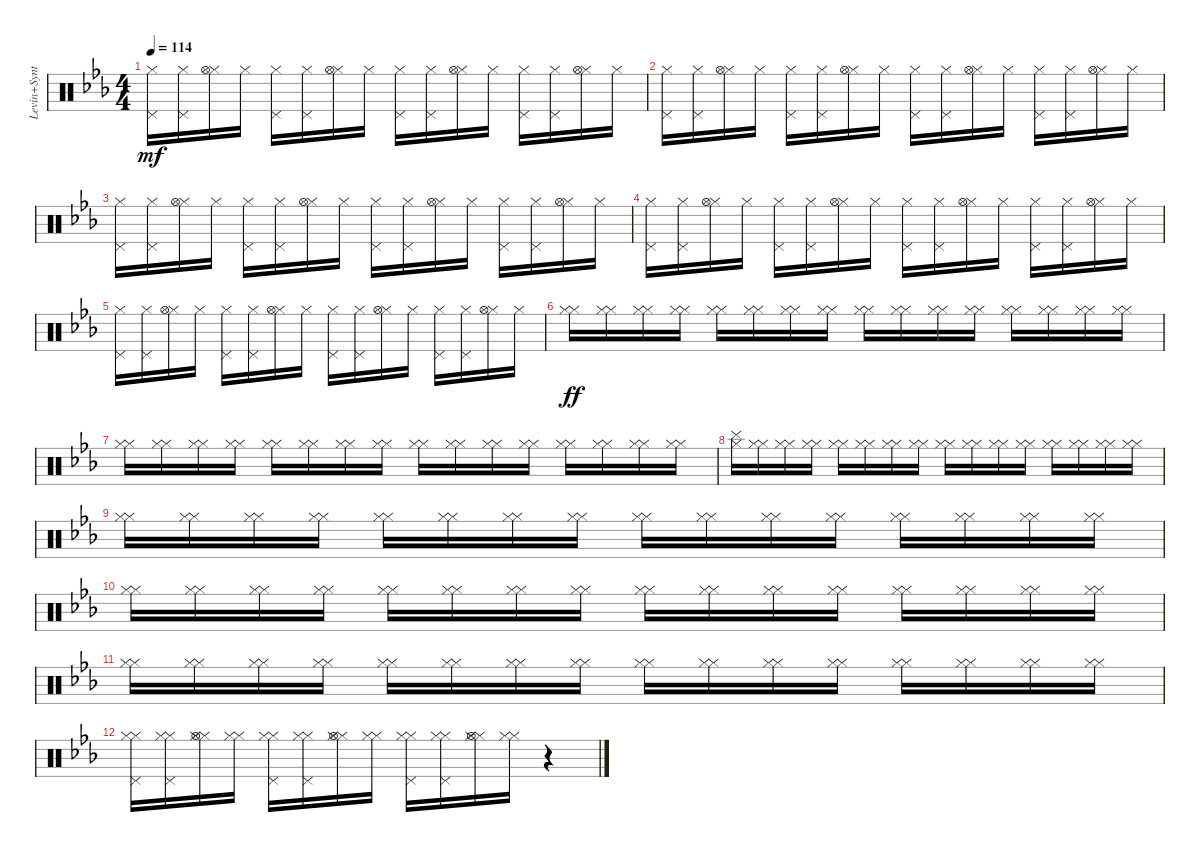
\track ("Levin+Synth" "Levin+Synt") {instrument percussion}
\staff {score}
\articulation defaults
\ts (4 4)
\tempo 114
\clef neutral
\ks eb
("Hi-Hat (closed)" "Pedal Hi-Hat (hit)").16{dy mf} ("Hi-Hat (closed)" "Pedal Hi-Hat (hit)").16 ("Hi-Hat (closed)" "Hi-Hat (open)").16 "Hi-Hat (closed)".16 ("Hi-Hat (closed)" "Pedal Hi-Hat (hit)").16 ("Hi-Hat (closed)" "Pedal Hi-Hat (hit)").16 ("Hi-Hat (closed)" "Hi-Hat (open)").16 "Hi-Hat (closed)".16 ("Hi-Hat (closed)" "Pedal Hi-Hat (hit)").16 ("Hi-Hat (closed)" "Pedal Hi-Hat (hit)").16 ("Hi-Hat (closed)" "Hi-Hat (open)").16 "Hi-Hat (closed)".16 ("Hi-Hat (closed)" "Pedal Hi-Hat (hit)").16 ("Hi-Hat (closed)" "Pedal Hi-Hat (hit)").16 ("Hi-Hat (closed)" "Hi-Hat (open)").16 "Hi-Hat (closed)".16 |
("Hi-Hat (closed)" "Pedal Hi-Hat (hit)").16 ("Hi-Hat (closed)" "Pedal Hi-Hat (hit)").16 ("Hi-Hat (closed)" "Hi-Hat (open)").16 "Hi-Hat (closed)".16 ("Hi-Hat (closed)" "Pedal Hi-Hat (hit)").16 ("Hi-Hat (closed)" "Pedal Hi-Hat (hit)").16 ("Hi-Hat (closed)" "Hi-Hat (open)").16 "Hi-Hat (closed)".16 ("Hi-Hat (closed)" "Pedal Hi-Hat (hit)").16 ("Hi-Hat (closed)" "Pedal Hi-Hat (hit)").16 ("Hi-Hat (closed)" "Hi-Hat (open)").16 "Hi-Hat (closed)".16 ("Hi-Hat (closed)" "Pedal Hi-Hat (hit)").16 ("Hi-Hat (closed)" "Pedal Hi-Hat (hit)").16 ("Hi-Hat (closed)" "Hi-Hat (open)").16 "Hi-Hat (closed)".16 |
("Hi-Hat (closed)" "Pedal Hi-Hat (hit)").16 ("Hi-Hat (closed)" "Pedal Hi-Hat (hit)").16 ("Hi-Hat (closed)" "Hi-Hat (open)").16 "Hi-Hat (closed)".16 ("Hi-Hat (closed)" "Pedal Hi-Hat (hit)").16 ("Hi-Hat (closed)" "Pedal Hi-Hat (hit)").16 ("Hi-Hat (closed)" "Hi-Hat (open)").16 "Hi-Hat (closed)".16 ("Hi-Hat (closed)" "Pedal Hi-Hat (hit)").16 ("Hi-Hat (closed)" "Pedal Hi-Hat (hit)").16 ("Hi-Hat (closed)" "Hi-Hat (open)").16 "Hi-Hat (closed)".16 ("Hi-Hat (closed)" "Pedal Hi-Hat (hit)").16 ("Hi-Hat (closed)" "Pedal Hi-Hat (hit)").16 ("Hi-Hat (closed)" "Hi-Hat (open)").16 "Hi-Hat (closed)".16 |
("Hi-Hat (closed)" "Pedal Hi-Hat (hit)").16 ("Hi-Hat (closed)" "Pedal Hi-Hat (hit)").16 ("Hi-Hat (closed)" "Hi-Hat (open)").16 "Hi-Hat (closed)".16 ("Hi-Hat (closed)" "Pedal Hi-Hat (hit)").16 ("Hi-Hat (closed)" "Pedal Hi-Hat (hit)").16 ("Hi-Hat (closed)" "Hi-Hat (open)").16 "Hi-Hat (closed)".16 ("Hi-Hat (closed)" "Pedal Hi-Hat (hit)").16 ("Hi-Hat (closed)" "Pedal Hi-Hat (hit)").16 ("Hi-Hat (closed)" "Hi-Hat (open)").16 "Hi-Hat (closed)".16 ("Hi-Hat (closed)" "Pedal Hi-Hat (hit)").16 ("Hi-Hat (closed)" "Pedal Hi-Hat (hit)").16 ("Hi-Hat (closed)" "Hi-Hat (open)").16 "Hi-Hat (closed)".16 |
("Hi-Hat (closed)" "Pedal Hi-Hat (hit)").16 ("Hi-Hat (closed)" "Pedal Hi-Hat (hit)").16 ("Hi-Hat (closed)" "Hi-Hat (open)").16 "Hi-Hat (closed)".16 ("Hi-Hat (closed)" "Pedal Hi-Hat (hit)").16 ("Hi-Hat (closed)" "Pedal Hi-Hat (hit)").16 ("Hi-Hat (closed)" "Hi-Hat (open)").16 "Hi-Hat (closed)".16 ("Hi-Hat (closed)" "Pedal Hi-Hat (hit)").16 ("Hi-Hat (closed)" "Pedal Hi-Hat (hit)").16 ("Hi-Hat (closed)" "Hi-Hat (open)").16 "Hi-Hat (closed)".16 ("Hi-Hat (closed)" "Pedal Hi-Hat (hit)").16 ("Hi-Hat (closed)" "Pedal Hi-Hat (hit)").16 ("Hi-Hat (closed)" "Hi-Hat (open)").16 "Hi-Hat (closed)".16 |
("Hi-Hat (closed)" "Hi-Hat (closed)").16{dy ff} ("Hi-Hat (closed)" "Hi-Hat (closed)").16 ("Hi-Hat (closed)" "Hi-Hat (closed)").16 ("Hi-Hat (closed)" "Hi-Hat (closed)").16 ("Hi-Hat (closed)" "Hi-Hat (closed)").16 ("Hi-Hat (closed)" "Hi-Hat (closed)").16 ("Hi-Hat (closed)" "Hi-Hat (closed)").16 ("Hi-Hat (closed)" "Hi-Hat (closed)").16 ("Hi-Hat (closed)" "Hi-Hat (closed)").16 ("Hi-Hat (closed)" "Hi-Hat (closed)").16 ("Hi-Hat (closed)" "Hi-Hat (closed)").16 ("Hi-Hat (closed)" "Hi-Hat (closed)").16 ("Hi-Hat (closed)" "Hi-Hat (closed)").16 ("Hi-Hat (closed)" "Hi-Hat (closed)").16 ("Hi-Hat (closed)" "Hi-Hat (closed)").16 ("Hi-Hat (closed)" "Hi-Hat (closed)").16 |
("Hi-Hat (closed)" "Hi-Hat (closed)").16 ("Hi-Hat (closed)" "Hi-Hat (closed)").16 ("Hi-Hat (closed)" "Hi-Hat (closed)").16 ("Hi-Hat (closed)" "Hi-Hat (closed)").16 ("Hi-Hat (closed)" "Hi-Hat (closed)").16 ("Hi-Hat (closed)" "Hi-Hat (closed)").16 ("Hi-Hat (closed)" "Hi-Hat (closed)").16 ("Hi-Hat (closed)" "Hi-Hat (closed)").16 ("Hi-Hat (closed)" "Hi-Hat (closed)").16 ("Hi-Hat (closed)" "Hi-Hat (closed)").16 ("Hi-Hat (closed)" "Hi-Hat (closed)").16 ("Hi-Hat (closed)" "Hi-Hat (closed)").16 ("Hi-Hat (closed)" "Hi-Hat (closed)").16 ("Hi-Hat (closed)" "Hi-Hat (closed)").16 ("Hi-Hat (closed)" "Hi-Hat (closed)").16 ("Hi-Hat (closed)" "Hi-Hat (closed)").16 |
("Hi-Hat (closed)" "Cymbal (hit)").16 ("Hi-Hat (closed)" "Hi-Hat (closed)").16 ("Hi-Hat (closed)" "Hi-Hat (closed)").16 ("Hi-Hat (closed)" "Hi-Hat (closed)").16 ("Hi-Hat (closed)" "Hi-Hat (closed)").16 ("Hi-Hat (closed)" "Hi-Hat (closed)").16 ("Hi-Hat (closed)" "Hi-Hat (closed)").16 ("Hi-Hat (closed)" "Hi-Hat (closed)").16 ("Hi-Hat (closed)" "Hi-Hat (closed)").16 ("Hi-Hat (closed)" "Hi-Hat (closed)").16 ("Hi-Hat (closed)" "Hi-Hat (closed)").16 ("Hi-Hat (closed)" "Hi-Hat (closed)").16 ("Hi-Hat (closed)" "Hi-Hat (closed)").16 ("Hi-Hat (closed)" "Hi-Hat (closed)").16 ("Hi-Hat (closed)" "Hi-Hat (closed)").16 ("Hi-Hat (closed)" "Hi-Hat (closed)").16 |
("Hi-Hat (closed)" "Hi-Hat (closed)").16 ("Hi-Hat (closed)" "Hi-Hat (closed)").16 ("Hi-Hat (closed)" "Hi-Hat (closed)").16 ("Hi-Hat (closed)" "Hi-Hat (closed)").16 ("Hi-Hat (closed)" "Hi-Hat (closed)").16 ("Hi-Hat (closed)" "Hi-Hat (closed)").16 ("Hi-Hat (closed)" "Hi-Hat (closed)").16 ("Hi-Hat (closed)" "Hi-Hat (closed)").16 ("Hi-Hat (closed)" "Hi-Hat (closed)").16 ("Hi-Hat (closed)" "Hi-Hat (closed)").16 ("Hi-Hat (closed)" "Hi-Hat (closed)").16 ("Hi-Hat (closed)" "Hi-Hat (closed)").16 ("Hi-Hat (closed)" "Hi-Hat (closed)").16 ("Hi-Hat (closed)" "Hi-Hat (closed)").16 ("Hi-Hat (closed)" "Hi-Hat (closed)").16 ("Hi-Hat (closed)" "Hi-Hat (closed)").16 |
("Hi-Hat (closed)" "Hi-Hat (closed)").16 ("Hi-Hat (closed)" "Hi-Hat (closed)").16 ("Hi-Hat (closed)" "Hi-Hat (closed)").16 ("Hi-Hat (closed)" "Hi-Hat (closed)").16 ("Hi-Hat (closed)" "Hi-Hat (closed)").16 ("Hi-Hat (closed)" "Hi-Hat (closed)").16 ("Hi-Hat (closed)" "Hi-Hat (closed)").16 ("Hi-Hat (closed)" "Hi-Hat (closed)").16 ("Hi-Hat (closed)" "Hi-Hat (closed)").16 ("Hi-Hat (closed)" "Hi-Hat (closed)").16 ("Hi-Hat (closed)" "Hi-Hat (closed)").16 ("Hi-Hat (closed)" "Hi-Hat (closed)").16 ("Hi-Hat (closed)" "Hi-Hat (closed)").16 ("Hi-Hat (closed)" "Hi-Hat (closed)").16 ("Hi-Hat (closed)" "Hi-Hat (closed)").16 ("Hi-Hat (closed)" "Hi-Hat (closed)").16 |
("Hi-Hat (closed)" "Hi-Hat (closed)").16 ("Hi-Hat (closed)" "Hi-Hat (closed)").16 ("Hi-Hat (closed)" "Hi-Hat (closed)").16 ("Hi-Hat (closed)" "Hi-Hat (closed)").16 ("Hi-Hat (closed)" "Hi-Hat (closed)").16 ("Hi-Hat (closed)" "Hi-Hat (closed)").16 ("Hi-Hat (closed)" "Hi-Hat (closed)").16 ("Hi-Hat (closed)" "Hi-Hat (closed)").16 ("Hi-Hat (closed)" "Hi-Hat (closed)").16 ("Hi-Hat (closed)" "Hi-Hat (closed)").16 ("Hi-Hat (closed)" "Hi-Hat (closed)").16 ("Hi-Hat (closed)" "Hi-Hat (closed)").16 ("Hi-Hat (closed)" "Hi-Hat (closed)").16 ("Hi-Hat (closed)" "Hi-Hat (closed)").16 ("Hi-Hat (closed)" "Hi-Hat (closed)").16 ("Hi-Hat (closed)" "Hi-Hat (closed)").16 |
("Hi-Hat (closed)" "Hi-Hat (closed)" "Pedal Hi-Hat (hit)").16 ("Hi-Hat (closed)" "Hi-Hat (closed)" "Pedal Hi-Hat (hit)").16 ("Hi-Hat (closed)" "Hi-Hat (closed)" "Hi-Hat (open)").16 ("Hi-Hat (closed)" "Hi-Hat (closed)").16 ("Hi-Hat (closed)" "Hi-Hat (closed)" "Pedal Hi-Hat (hit)").16 ("Hi-Hat (closed)" "Hi-Hat (closed)" "Pedal Hi-Hat (hit)").16 ("Hi-Hat (closed)" "Hi-Hat (closed)" "Hi-Hat (open)").16 ("Hi-Hat (closed)" "Hi-Hat (closed)").16 ("Hi-Hat (closed)" "Hi-Hat (closed)" "Pedal Hi-Hat (hit)").16 ("Hi-Hat (closed)" "Hi-Hat (closed)" "Pedal Hi-Hat (hit)").16 ("Hi-Hat (closed)" "Hi-Hat (closed)" "Hi-Hat (open)").16 ("Hi-Hat (closed)" "Hi-Hat (closed)").16 r.4
